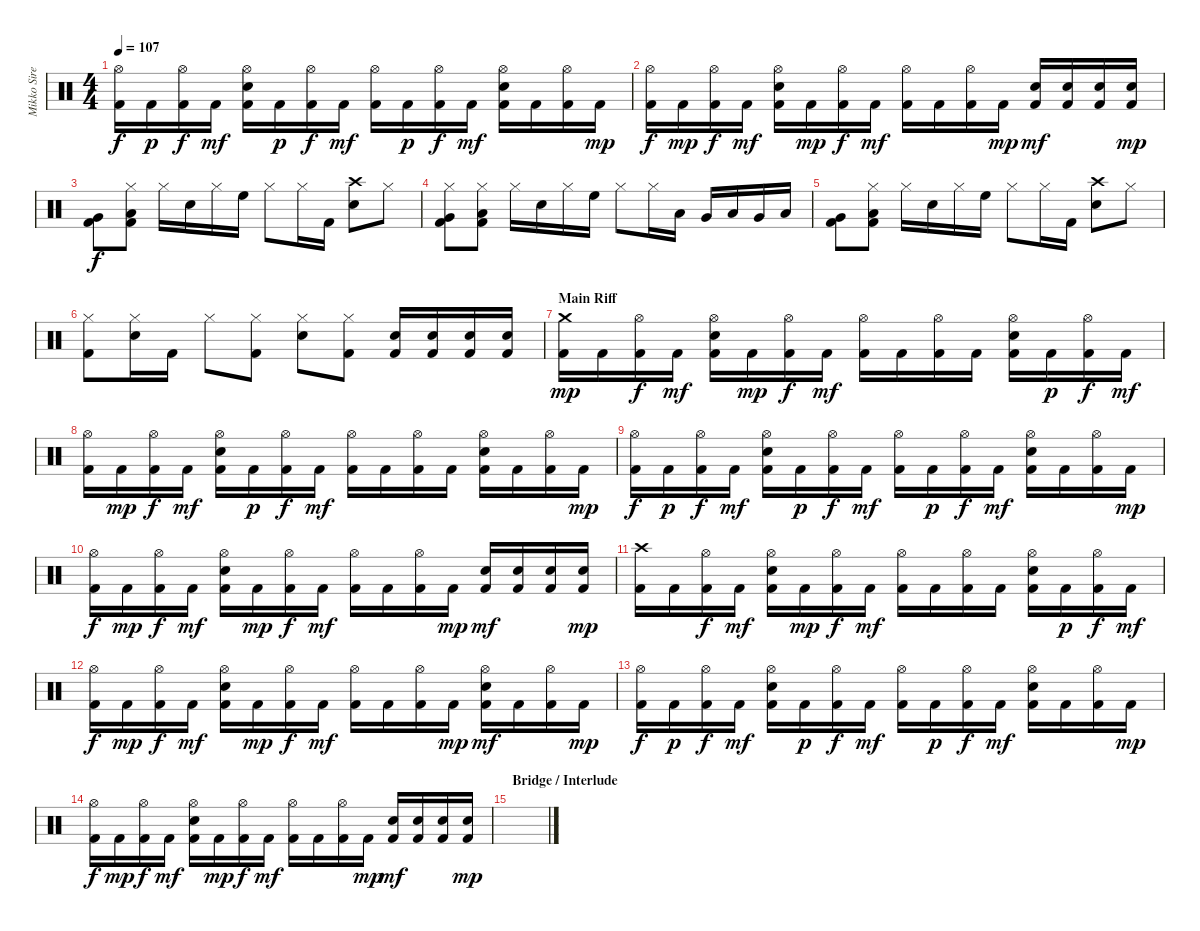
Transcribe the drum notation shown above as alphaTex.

\track ("Mikko Siren" "Mikko Sire") {instrument percussion}
\staff {score}
\articulation defaults
\ts (4 4)
\tempo 107
\clef neutral
\ks c
("Kick (hit) 2" "Hi-Hat (open)").16{dy f} "Kick (hit) 2".16{dy p} ("Kick (hit) 2" "Hi-Hat (open)").16{dy f} "Kick (hit) 2".16{dy mf} ("Kick (hit) 2" "Electric Snare (hit)" "Hi-Hat (open)").16 "Kick (hit) 2".16{dy p} ("Kick (hit) 2" "Hi-Hat (open)").16{dy f} "Kick (hit) 2".16{dy mf} ("Kick (hit) 2" "Hi-Hat (open)").16 "Kick (hit) 2".16{dy p} ("Kick (hit) 2" "Hi-Hat (open)").16{dy f} "Kick (hit) 2".16{dy mf} ("Kick (hit) 2" "Electric Snare (hit)" "Hi-Hat (open)").16 "Kick (hit) 2".16 ("Kick (hit) 2" "Hi-Hat (open)").16 "Kick (hit) 2".16{dy mp} |
("Kick (hit) 2" "Hi-Hat (open)").16{dy f} "Kick (hit) 2".16{dy mp} ("Kick (hit) 2" "Hi-Hat (open)").16{dy f} "Kick (hit) 2".16{dy mf} ("Kick (hit) 2" "Electric Snare (hit)" "Hi-Hat (open)").16 "Kick (hit) 2".16{dy mp} ("Kick (hit) 2" "Hi-Hat (open)").16{dy f} "Kick (hit) 2".16{dy mf} ("Kick (hit) 2" "Hi-Hat (open)").16 "Kick (hit) 2".16 ("Kick (hit) 2" "Hi-Hat (open)").16 "Kick (hit) 2".16{dy mp} ("Kick (hit) 2" "Electric Snare (hit)").16{dy mf} ("Kick (hit) 2" "Electric Snare (hit)").16 ("Kick (hit) 2" "Electric Snare (hit)").16 ("Kick (hit) 2" "Electric Snare (hit)").16{dy mp} |
("Very Low Tom (hit)" "Kick (hit) 2").8{dy f} ("Low Floor Tom (hit)" "Kick (hit) 2" "Hi-Hat (closed)").8 "Hi-Hat (closed)".16 "Electric Snare (hit)".16 "Hi-Hat (closed)".16 "High Floor Tom (hit)".16 "Hi-Hat (closed)".8 "Hi-Hat (closed)".16 "Kick (hit) 2".16 ("Electric Snare (hit)" "Crash high (hit)").8 "Hi-Hat (closed)".8 |
("Very Low Tom (hit)" "Kick (hit) 2" "Hi-Hat (closed)").8 ("Low Floor Tom (hit)" "Kick (hit) 2" "Hi-Hat (closed)").8 "Hi-Hat (closed)".16 "Electric Snare (hit)".16 "Hi-Hat (closed)".16 "High Floor Tom (hit)".16 "Hi-Hat (closed)".8 "Hi-Hat (closed)".16 "Low Tom (hit)".16 "Very Low Tom (hit)".16 "Low Tom (hit)".16 "Very Low Tom (hit)".16 "Low Floor Tom (hit)".16 |
("Very Low Tom (hit)" "Kick (hit) 2").8 ("Low Floor Tom (hit)" "Kick (hit) 2" "Hi-Hat (closed)").8 "Hi-Hat (closed)".16 "Electric Snare (hit)".16 "Hi-Hat (closed)".16 "High Floor Tom (hit)".16 "Hi-Hat (closed)".8 "Hi-Hat (closed)".16 "Kick (hit) 2".16 ("Electric Snare (hit)" "Crash high (hit)").8 "Hi-Hat (closed)".8 |
("Kick (hit) 2" "Hi-Hat (closed)").8 ("Electric Snare (hit)" "Hi-Hat (closed)").16 "Kick (hit) 2".16 "Hi-Hat (closed)".8 ("Kick (hit) 2" "Hi-Hat (closed)").8 ("Electric Snare (hit)" "Hi-Hat (closed)").8 ("Kick (hit) 2" "Hi-Hat (closed)").8 ("Electric Snare (hit)" "Kick (hit) 2").16 ("Electric Snare (hit)" "Kick (hit) 2").16 ("Electric Snare (hit)" "Kick (hit) 2").16 ("Electric Snare (hit)" "Kick (hit) 2").16 |
\section ("" "Main Riff")
("Kick (hit) 2" "Crash medium (hit)").16{dy mp} "Kick (hit) 2".16 ("Kick (hit) 2" "Hi-Hat (open)").16{dy f} "Kick (hit) 2".16{dy mf} ("Kick (hit) 2" "Hi-Hat (open)" "Electric Snare (hit)").16 "Kick (hit) 2".16{dy mp} ("Kick (hit) 2" "Hi-Hat (open)").16{dy f} "Kick (hit) 2".16{dy mf} ("Kick (hit) 2" "Hi-Hat (open)").16 "Kick (hit) 2".16 ("Kick (hit) 2" "Hi-Hat (open)").16 "Kick (hit) 2".16 ("Kick (hit) 2" "Electric Snare (hit)" "Hi-Hat (open)").16 "Kick (hit) 2".16{dy p} ("Kick (hit) 2" "Hi-Hat (open)").16{dy f} "Kick (hit) 2".16{dy mf} |
("Kick (hit) 2" "Hi-Hat (open)").16 "Kick (hit) 2".16{dy mp} ("Kick (hit) 2" "Hi-Hat (open)").16{dy f} "Kick (hit) 2".16{dy mf} ("Kick (hit) 2" "Electric Snare (hit)" "Hi-Hat (open)").16 "Kick (hit) 2".16{dy p} ("Kick (hit) 2" "Hi-Hat (open)").16{dy f} "Kick (hit) 2".16{dy mf} ("Kick (hit) 2" "Hi-Hat (open)").16 "Kick (hit) 2".16 ("Kick (hit) 2" "Hi-Hat (open)").16 "Kick (hit) 2".16 ("Kick (hit) 2" "Electric Snare (hit)" "Hi-Hat (open)").16 "Kick (hit) 2".16 ("Kick (hit) 2" "Hi-Hat (open)").16 "Kick (hit) 2".16{dy mp} |
("Kick (hit) 2" "Hi-Hat (open)").16{dy f} "Kick (hit) 2".16{dy p} ("Kick (hit) 2" "Hi-Hat (open)").16{dy f} "Kick (hit) 2".16{dy mf} ("Kick (hit) 2" "Electric Snare (hit)" "Hi-Hat (open)").16 "Kick (hit) 2".16{dy p} ("Kick (hit) 2" "Hi-Hat (open)").16{dy f} "Kick (hit) 2".16{dy mf} ("Kick (hit) 2" "Hi-Hat (open)").16 "Kick (hit) 2".16{dy p} ("Kick (hit) 2" "Hi-Hat (open)").16{dy f} "Kick (hit) 2".16{dy mf} ("Kick (hit) 2" "Electric Snare (hit)" "Hi-Hat (open)").16 "Kick (hit) 2".16 ("Kick (hit) 2" "Hi-Hat (open)").16 "Kick (hit) 2".16{dy mp} |
("Kick (hit) 2" "Hi-Hat (open)").16{dy f} "Kick (hit) 2".16{dy mp} ("Kick (hit) 2" "Hi-Hat (open)").16{dy f} "Kick (hit) 2".16{dy mf} ("Kick (hit) 2" "Electric Snare (hit)" "Hi-Hat (open)").16 "Kick (hit) 2".16{dy mp} ("Kick (hit) 2" "Hi-Hat (open)").16{dy f} "Kick (hit) 2".16{dy mf} ("Kick (hit) 2" "Hi-Hat (open)").16 "Kick (hit) 2".16 ("Kick (hit) 2" "Hi-Hat (open)").16 "Kick (hit) 2".16{dy mp} ("Kick (hit) 2" "Electric Snare (hit)").16{dy mf} ("Kick (hit) 2" "Electric Snare (hit)").16 ("Kick (hit) 2" "Electric Snare (hit)").16 ("Kick (hit) 2" "Electric Snare (hit)").16{dy mp} |
("Kick (hit) 2" "Crash high (hit)").16 "Kick (hit) 2".16 ("Kick (hit) 2" "Hi-Hat (open)").16{dy f} "Kick (hit) 2".16{dy mf} ("Kick (hit) 2" "Electric Snare (hit)" "Hi-Hat (open)").16 "Kick (hit) 2".16{dy mp} ("Kick (hit) 2" "Hi-Hat (open)").16{dy f} "Kick (hit) 2".16{dy mf} ("Kick (hit) 2" "Hi-Hat (open)").16 "Kick (hit) 2".16 ("Kick (hit) 2" "Hi-Hat (open)").16 "Kick (hit) 2".16 ("Kick (hit) 2" "Electric Snare (hit)" "Hi-Hat (open)").16 "Kick (hit) 2".16{dy p} ("Kick (hit) 2" "Hi-Hat (open)").16{dy f} "Kick (hit) 2".16{dy mf} |
("Kick (hit) 2" "Hi-Hat (open)").16{dy f} "Kick (hit) 2".16{dy mp} ("Kick (hit) 2" "Hi-Hat (open)").16{dy f} "Kick (hit) 2".16{dy mf} ("Kick (hit) 2" "Electric Snare (hit)" "Hi-Hat (open)").16 "Kick (hit) 2".16{dy mp} ("Kick (hit) 2" "Hi-Hat (open)").16{dy f} "Kick (hit) 2".16{dy mf} ("Kick (hit) 2" "Hi-Hat (open)").16 "Kick (hit) 2".16 ("Kick (hit) 2" "Hi-Hat (open)").16 "Kick (hit) 2".16{dy mp} ("Kick (hit) 2" "Electric Snare (hit)" "Hi-Hat (open)").16{dy mf} "Kick (hit) 2".16 ("Kick (hit) 2" "Hi-Hat (open)").16 "Kick (hit) 2".16{dy mp} |
("Kick (hit) 2" "Hi-Hat (open)").16{dy f} "Kick (hit) 2".16{dy p} ("Kick (hit) 2" "Hi-Hat (open)").16{dy f} "Kick (hit) 2".16{dy mf} ("Kick (hit) 2" "Electric Snare (hit)" "Hi-Hat (open)").16 "Kick (hit) 2".16{dy p} ("Kick (hit) 2" "Hi-Hat (open)").16{dy f} "Kick (hit) 2".16{dy mf} ("Kick (hit) 2" "Hi-Hat (open)").16 "Kick (hit) 2".16{dy p} ("Kick (hit) 2" "Hi-Hat (open)").16{dy f} "Kick (hit) 2".16{dy mf} ("Kick (hit) 2" "Electric Snare (hit)" "Hi-Hat (open)").16 "Kick (hit) 2".16 ("Kick (hit) 2" "Hi-Hat (open)").16 "Kick (hit) 2".16{dy mp} |
("Kick (hit) 2" "Hi-Hat (open)").16{dy f} "Kick (hit) 2".16{dy mp} ("Kick (hit) 2" "Hi-Hat (open)").16{dy f} "Kick (hit) 2".16{dy mf} ("Kick (hit) 2" "Electric Snare (hit)" "Hi-Hat (open)").16 "Kick (hit) 2".16{dy mp} ("Kick (hit) 2" "Hi-Hat (open)").16{dy f} "Kick (hit) 2".16{dy mf} ("Kick (hit) 2" "Hi-Hat (open)").16 "Kick (hit) 2".16 ("Kick (hit) 2" "Hi-Hat (open)").16 "Kick (hit) 2".16{dy mp} ("Kick (hit) 2" "Electric Snare (hit)").16{dy mf} ("Kick (hit) 2" "Electric Snare (hit)").16 ("Kick (hit) 2" "Electric Snare (hit)").16 ("Kick (hit) 2" "Electric Snare (hit)").16{dy mp} |
\section ("" "Bridge / Interlude")
